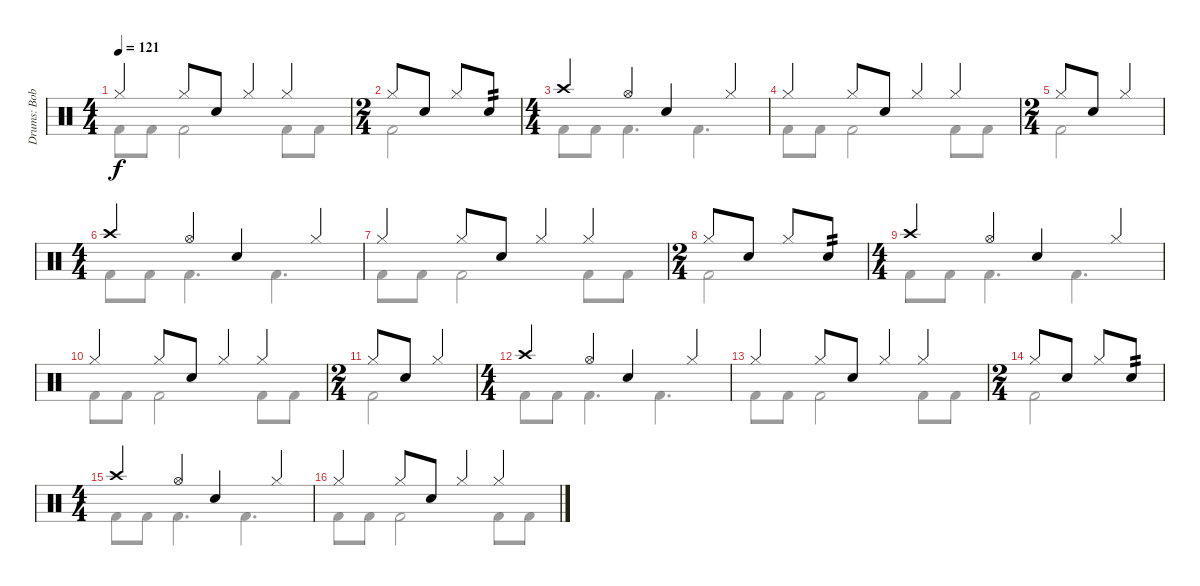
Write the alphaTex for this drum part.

\track ("Drums: Bobby" "Drums: Bob") {instrument percussion}
\staff {score}
\articulation defaults
\voice
\ts (4 4)
\tempo 121
\clef neutral
\ks c "Hi-Hat (closed)".4{dy f} "Hi-Hat (closed)".8 "Snare (hit) 2".8 "Hi-Hat (closed)".4 "Hi-Hat (closed)".4
|
\ts (2 4)
"Hi-Hat (closed)".8 "Snare (hit) 2".8 "Hi-Hat (closed)".8 "Snare (hit) 2".8{tp 2} |
\ts (4 4)
"Crash high (hit)".4 "Hi-Hat (open)".4 "Snare (hit) 2".4 "Hi-Hat (closed)".4 |
"Hi-Hat (closed)".4 "Hi-Hat (closed)".8 "Snare (hit) 2".8 "Hi-Hat (closed)".4 "Hi-Hat (closed)".4 |
\ts (2 4)
"Hi-Hat (closed)".8 "Snare (hit) 2".8 "Hi-Hat (closed)".4 |
\ts (4 4)
"Crash high (hit)".4 "Hi-Hat (open)".4 "Snare (hit) 2".4 "Hi-Hat (closed)".4 |
"Hi-Hat (closed)".4 "Hi-Hat (closed)".8 "Snare (hit) 2".8 "Hi-Hat (closed)".4 "Hi-Hat (closed)".4 |
\ts (2 4)
"Hi-Hat (closed)".8 "Snare (hit) 2".8 "Hi-Hat (closed)".8 "Snare (hit) 2".8{tp 2} |
\ts (4 4)
"Crash high (hit)".4 "Hi-Hat (open)".4 "Snare (hit) 2".4 "Hi-Hat (closed)".4 |
"Hi-Hat (closed)".4 "Hi-Hat (closed)".8 "Snare (hit) 2".8 "Hi-Hat (closed)".4 "Hi-Hat (closed)".4 |
\ts (2 4)
"Hi-Hat (closed)".8 "Snare (hit) 2".8 "Hi-Hat (closed)".4 |
\ts (4 4)
"Crash high (hit)".4 "Hi-Hat (open)".4 "Snare (hit) 2".4 "Hi-Hat (closed)".4 |
"Hi-Hat (closed)".4 "Hi-Hat (closed)".8 "Snare (hit) 2".8 "Hi-Hat (closed)".4 "Hi-Hat (closed)".4 |
\ts (2 4)
"Hi-Hat (closed)".8 "Snare (hit) 2".8 "Hi-Hat (closed)".8 "Snare (hit) 2".8{tp 2} |
\ts (4 4)
"Crash high (hit)".4 "Hi-Hat (open)".4 "Snare (hit) 2".4 "Hi-Hat (closed)".4 |
"Hi-Hat (closed)".4 "Hi-Hat (closed)".8 "Snare (hit) 2".8 "Hi-Hat (closed)".4 "Hi-Hat (closed)".4
\voice
\clef neutral
\ottava regular
\simile none
\ks c "Kick (hit) 2".8{dy f} "Kick (hit) 2".8 "Kick (hit) 2".2 "Kick (hit) 2".8 "Kick (hit) 2".8
|
"Kick (hit) 2".2 |
"Kick (hit) 2".8 "Kick (hit) 2".8 "Kick (hit) 2".4{d} "Kick (hit) 2".4{d} |
"Kick (hit) 2".8 "Kick (hit) 2".8 "Kick (hit) 2".2 "Kick (hit) 2".8 "Kick (hit) 2".8 |
"Kick (hit) 2".2 |
"Kick (hit) 2".8 "Kick (hit) 2".8 "Kick (hit) 2".4{d} "Kick (hit) 2".4{d} |
"Kick (hit) 2".8 "Kick (hit) 2".8 "Kick (hit) 2".2 "Kick (hit) 2".8 "Kick (hit) 2".8 |
"Kick (hit) 2".2 |
"Kick (hit) 2".8 "Kick (hit) 2".8 "Kick (hit) 2".4{d} "Kick (hit) 2".4{d} |
"Kick (hit) 2".8 "Kick (hit) 2".8 "Kick (hit) 2".2 "Kick (hit) 2".8 "Kick (hit) 2".8 |
"Kick (hit) 2".2 |
"Kick (hit) 2".8 "Kick (hit) 2".8 "Kick (hit) 2".4{d} "Kick (hit) 2".4{d} |
"Kick (hit) 2".8 "Kick (hit) 2".8 "Kick (hit) 2".2 "Kick (hit) 2".8 "Kick (hit) 2".8 |
"Kick (hit) 2".2 |
"Kick (hit) 2".8 "Kick (hit) 2".8 "Kick (hit) 2".4{d} "Kick (hit) 2".4{d} |
"Kick (hit) 2".8 "Kick (hit) 2".8 "Kick (hit) 2".2 "Kick (hit) 2".8 "Kick (hit) 2".8
